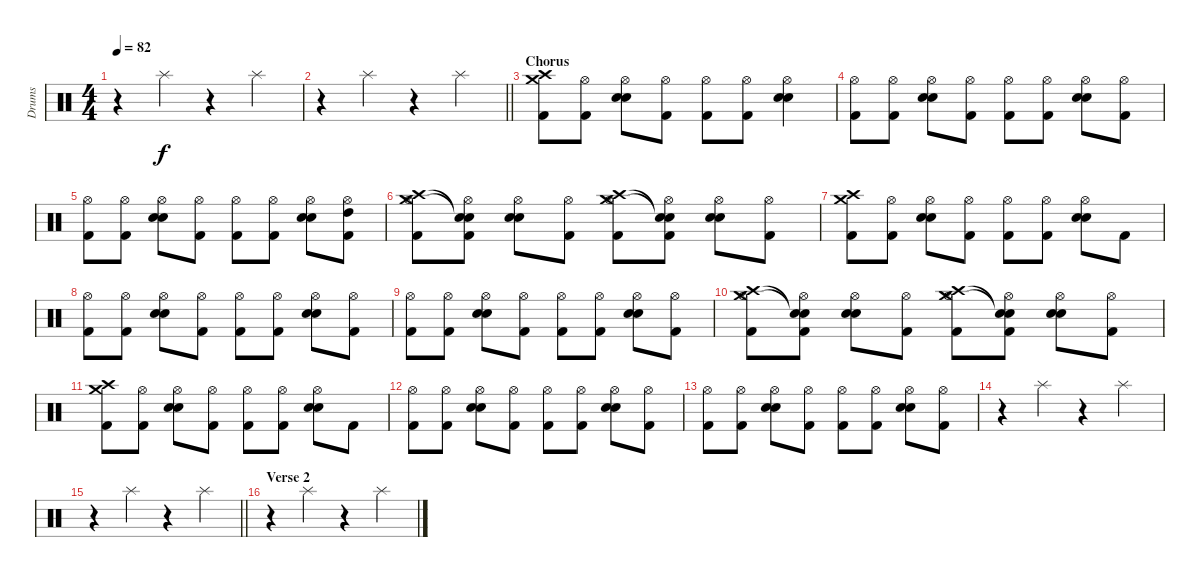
\track ("Drums" "Drums") {instrument percussion}
\staff {score}
\articulation defaults
\ts (4 4)
\tempo 82
\clef neutral
\ks c
r.4{dy f} "Splash (hit)".4 r.4 "Splash (hit)".4 |
\barLineRight lightlight
r.4 "Splash (hit)".4 r.4 "Splash (hit)".4 |
\section ("" "Chorus")
("Crash medium (hit)" "Crash high (hit)" "Kick (hit) 2").8 ("Hi-Hat (open)" "Kick (hit) 2").8 ("Hi-Hat (open)" "Snare (hit) 2" "Electric Snare (hit)").8 ("Hi-Hat (open)" "Kick (hit) 2").8 ("Hi-Hat (open)" "Kick (hit) 2").8 ("Hi-Hat (open)" "Kick (hit) 2").8 ("Hi-Hat (open)" "Snare (hit) 2" "Electric Snare (hit)").4 |
("Hi-Hat (open)" "Kick (hit) 2").8 ("Hi-Hat (open)" "Kick (hit) 2").8 ("Hi-Hat (open)" "Snare (hit) 2" "Electric Snare (hit)").8 ("Hi-Hat (open)" "Kick (hit) 2").8 ("Hi-Hat (open)" "Kick (hit) 2").8 ("Hi-Hat (open)" "Kick (hit) 2").8 ("Hi-Hat (open)" "Snare (hit) 2" "Electric Snare (hit)").8 ("Hi-Hat (open)" "Kick (hit) 2").8 |
("Hi-Hat (open)" "Kick (hit) 2").8 ("Hi-Hat (open)" "Kick (hit) 2").8 ("Hi-Hat (open)" "Snare (hit) 2" "Electric Snare (hit)").8 ("Hi-Hat (open)" "Kick (hit) 2").8 ("Hi-Hat (open)" "Kick (hit) 2").8 ("Hi-Hat (open)" "Kick (hit) 2").8 ("Hi-Hat (open)" "Snare (hit) 2" "Electric Snare (hit)").8 ("Hi-Hat (open)" "High Tom (hit)" "Kick (hit) 2").8 |
("Hi-Hat (open)" "Crash medium (hit)" "Crash high (hit)" "Kick (hit) 2").8 ("Hi-Hat (open)" "Snare (hit)"{t} "Snare (hit)"{t} "Kick (hit) 2").8 ("Hi-Hat (open)" "Snare (hit) 2" "Electric Snare (hit)").8 ("Hi-Hat (open)" "Kick (hit) 2").8 ("Hi-Hat (open)" "Crash medium (hit)" "Crash high (hit)" "Kick (hit) 2").8 ("Hi-Hat (open)" "Snare (hit)"{t} "Snare (hit)"{t} "Kick (hit) 2").8 ("Hi-Hat (open)" "Snare (hit) 2" "Electric Snare (hit)").8 ("Hi-Hat (open)" "Kick (hit) 2").8 |
("Crash medium (hit)" "Crash high (hit)" "Kick (hit) 2").8 ("Hi-Hat (open)" "Kick (hit) 2").8 ("Hi-Hat (open)" "Snare (hit) 2" "Electric Snare (hit)").8 ("Hi-Hat (open)" "Kick (hit) 2").8 ("Hi-Hat (open)" "Kick (hit) 2").8 ("Hi-Hat (open)" "Kick (hit) 2").8 ("Hi-Hat (open)" "Snare (hit) 2" "Electric Snare (hit)").8 "Kick (hit) 2".8 |
("Hi-Hat (open)" "Kick (hit) 2").8 ("Hi-Hat (open)" "Kick (hit) 2").8 ("Hi-Hat (open)" "Snare (hit) 2" "Electric Snare (hit)").8 ("Hi-Hat (open)" "Kick (hit) 2").8 ("Hi-Hat (open)" "Kick (hit) 2").8 ("Hi-Hat (open)" "Kick (hit) 2").8 ("Hi-Hat (open)" "Snare (hit) 2" "Electric Snare (hit)").8 ("Hi-Hat (open)" "Kick (hit) 2").8 |
("Hi-Hat (open)" "Kick (hit) 2").8 ("Hi-Hat (open)" "Kick (hit) 2").8 ("Hi-Hat (open)" "Snare (hit) 2" "Electric Snare (hit)").8 ("Hi-Hat (open)" "Kick (hit) 2").8 ("Hi-Hat (open)" "Kick (hit) 2").8 ("Hi-Hat (open)" "Kick (hit) 2").8 ("Hi-Hat (open)" "Snare (hit) 2" "Electric Snare (hit)").8 ("Hi-Hat (open)" "Kick (hit) 2").8 |
("Hi-Hat (open)" "Crash medium (hit)" "Crash high (hit)" "Kick (hit) 2").8 ("Hi-Hat (open)" "Snare (hit)"{t} "Snare (hit)"{t} "Kick (hit) 2").8 ("Hi-Hat (open)" "Snare (hit) 2" "Electric Snare (hit)").8 ("Hi-Hat (open)" "Kick (hit) 2").8 ("Hi-Hat (open)" "Crash medium (hit)" "Crash high (hit)" "Kick (hit) 2").8 ("Hi-Hat (open)" "Snare (hit)"{t} "Snare (hit)"{t} "Kick (hit) 2").8 ("Hi-Hat (open)" "Snare (hit) 2" "Electric Snare (hit)").8 ("Hi-Hat (open)" "Kick (hit) 2").8 |
("Crash medium (hit)" "Crash high (hit)" "Kick (hit) 2").8 ("Hi-Hat (open)" "Kick (hit) 2").8 ("Hi-Hat (open)" "Snare (hit) 2" "Electric Snare (hit)").8 ("Hi-Hat (open)" "Kick (hit) 2").8 ("Hi-Hat (open)" "Kick (hit) 2").8 ("Hi-Hat (open)" "Kick (hit) 2").8 ("Hi-Hat (open)" "Snare (hit) 2" "Electric Snare (hit)").8 "Kick (hit) 2".8 |
("Hi-Hat (open)" "Kick (hit) 2").8 ("Hi-Hat (open)" "Kick (hit) 2").8 ("Hi-Hat (open)" "Snare (hit) 2" "Electric Snare (hit)").8 ("Hi-Hat (open)" "Kick (hit) 2").8 ("Hi-Hat (open)" "Kick (hit) 2").8 ("Hi-Hat (open)" "Kick (hit) 2").8 ("Hi-Hat (open)" "Snare (hit) 2" "Electric Snare (hit)").8 ("Hi-Hat (open)" "Kick (hit) 2").8 |
("Hi-Hat (open)" "Kick (hit) 2").8 ("Hi-Hat (open)" "Kick (hit) 2").8 ("Hi-Hat (open)" "Snare (hit) 2" "Electric Snare (hit)").8 ("Hi-Hat (open)" "Kick (hit) 2").8 ("Hi-Hat (open)" "Kick (hit) 2").8 ("Hi-Hat (open)" "Kick (hit) 2").8 ("Hi-Hat (open)" "Snare (hit) 2" "Electric Snare (hit)").8 ("Hi-Hat (open)" "Kick (hit) 2").8 |
r.4 "Splash (hit)".4 r.4 "Splash (hit)".4 |
\barLineRight lightlight
r.4 "Splash (hit)".4 r.4 "Splash (hit)".4 |
\section ("" "Verse 2")
r.4 "Splash (hit)".4 r.4 "Splash (hit)".4
